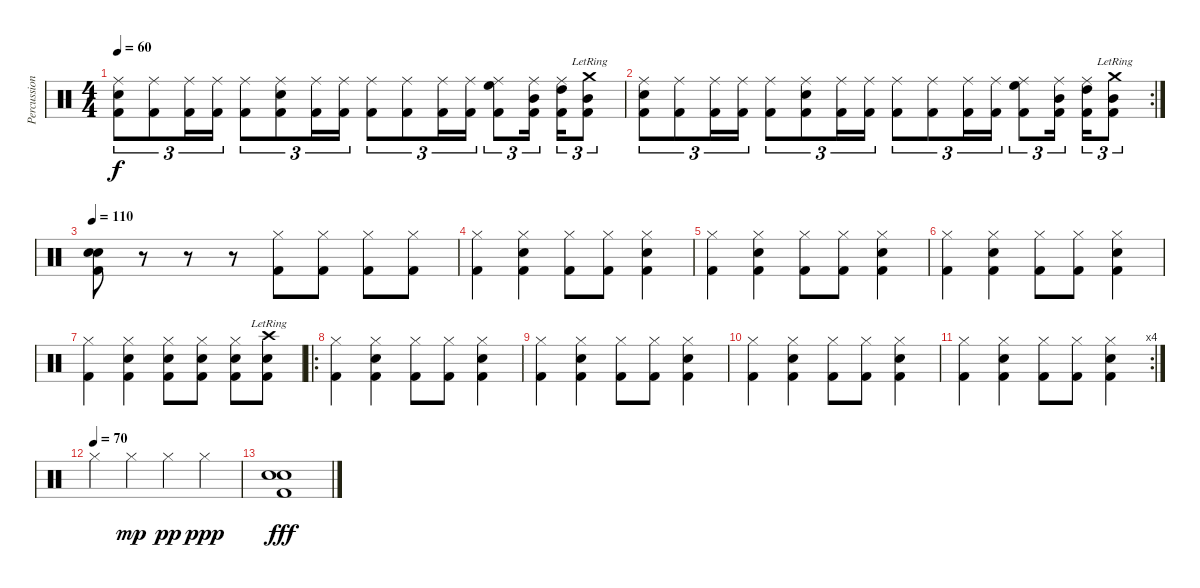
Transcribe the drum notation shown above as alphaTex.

\track ("Percussion" "Percussion") {instrument percussion}
\staff {score}
\articulation defaults
\ts (4 4)
\tempo 60
\clef neutral
\ks c
("Ride (middle)" "Snare (hit) 2" "Kick (hit) 2").8{tu (3 2) dy f} ("Ride (middle)" "Kick (hit) 2").8{tu (3 2)} ("Ride (middle)" "Kick (hit) 2").16{tu (3 2)} ("Ride (middle)" "Kick (hit) 2").16{tu (3 2)} ("Ride (middle)" "Kick (hit) 2").8{tu (3 2)} ("Ride (middle)" "Electric Snare (hit)" "Kick (hit) 2").8{tu (3 2)} ("Ride (middle)" "Kick (hit) 2").16{tu (3 2)} ("Ride (middle)" "Kick (hit) 2").16{tu (3 2)} ("Ride (middle)" "Kick (hit) 2").8{tu (3 2)} ("Ride (middle)" "Kick (hit) 2").8{tu (3 2)} ("Ride (middle)" "Kick (hit) 2").16{tu (3 2)} ("Ride (middle)" "Kick (hit) 2").16{tu (3 2)} ("Ride (middle)" "High Floor Tom (hit)" "Kick (hit) 2").8{tu (3 2)} ("Ride (middle)" "Mid Tom (hit)" "Kick (hit) 2").16{tu (3 2)} ("Ride (middle)" "High Tom (hit)" "Kick (hit) 2").16{tu (3 2)} ("Crash medium (hit)"{lr} "Mid Tom (hit)" "Kick (hit) 2").8{tu (3 2)} |
\rc 2
("Ride (middle)" "Snare (hit) 2" "Kick (hit) 2").8{tu (3 2)} ("Ride (middle)" "Kick (hit) 2").8{tu (3 2)} ("Ride (middle)" "Kick (hit) 2").16{tu (3 2)} ("Ride (middle)" "Kick (hit) 2").16{tu (3 2)} ("Ride (middle)" "Kick (hit) 2").8{tu (3 2)} ("Ride (middle)" "Electric Snare (hit)" "Kick (hit) 2").8{tu (3 2)} ("Ride (middle)" "Kick (hit) 2").16{tu (3 2)} ("Ride (middle)" "Kick (hit) 2").16{tu (3 2)} ("Ride (middle)" "Kick (hit) 2").8{tu (3 2)} ("Ride (middle)" "Kick (hit) 2").8{tu (3 2)} ("Ride (middle)" "Kick (hit) 2").16{tu (3 2)} ("Ride (middle)" "Kick (hit) 2").16{tu (3 2)} ("Ride (middle)" "High Floor Tom (hit)" "Kick (hit) 2").8{tu (3 2)} ("Ride (middle)" "Mid Tom (hit)" "Kick (hit) 2").16{tu (3 2)} ("Ride (middle)" "High Tom (hit)" "Kick (hit) 2").16{tu (3 2)} ("Crash medium (hit)"{lr} "Mid Tom (hit)" "Kick (hit) 2").8{tu (3 2)} |
\tempo 110
("Snare (hit) 2" "Electric Snare (hit)" "Kick (hit) 2").8 r.8 r.8 r.8 ("Hi-Hat (closed)" "Kick (hit) 2").8 ("Hi-Hat (closed)" "Kick (hit) 2").8 ("Hi-Hat (closed)" "Kick (hit) 2").8 ("Hi-Hat (closed)" "Kick (hit) 2").8 |
("Hi-Hat (closed)" "Kick (hit) 2").4 ("Hi-Hat (closed)" "Snare (hit) 2" "Kick (hit) 2").4 ("Hi-Hat (closed)" "Kick (hit) 2").8 ("Hi-Hat (closed)" "Kick (hit) 2").8 ("Hi-Hat (closed)" "Snare (hit) 2" "Kick (hit) 2").4 |
("Hi-Hat (closed)" "Kick (hit) 2").4 ("Hi-Hat (closed)" "Snare (hit) 2" "Kick (hit) 2").4 ("Hi-Hat (closed)" "Kick (hit) 2").8 ("Hi-Hat (closed)" "Kick (hit) 2").8 ("Hi-Hat (closed)" "Snare (hit) 2" "Kick (hit) 2").4 |
("Hi-Hat (closed)" "Kick (hit) 2").4 ("Hi-Hat (closed)" "Snare (hit) 2" "Kick (hit) 2").4 ("Hi-Hat (closed)" "Kick (hit) 2").8 ("Hi-Hat (closed)" "Kick (hit) 2").8 ("Hi-Hat (closed)" "Snare (hit) 2" "Kick (hit) 2").4 |
("Hi-Hat (closed)" "Kick (hit) 2").4 ("Hi-Hat (closed)" "Snare (hit) 2" "Kick (hit) 2").4 ("Hi-Hat (closed)" "Snare (hit) 2" "Kick (hit) 2").8 ("Hi-Hat (closed)" "Snare (hit) 2" "Kick (hit) 2").8 ("Hi-Hat (closed)" "Snare (hit) 2" "Kick (hit) 2").8 ("Crash high (hit)"{lr} "Electric Snare (hit)" "Kick (hit) 2").8 |
\ro
("Hi-Hat (closed)" "Kick (hit) 2").4 ("Hi-Hat (closed)" "Snare (hit) 2" "Kick (hit) 2").4 ("Hi-Hat (closed)" "Kick (hit) 2").8 ("Hi-Hat (closed)" "Kick (hit) 2").8 ("Hi-Hat (closed)" "Snare (hit) 2" "Kick (hit) 2").4 |
("Hi-Hat (closed)" "Kick (hit) 2").4 ("Hi-Hat (closed)" "Snare (hit) 2" "Kick (hit) 2").4 ("Hi-Hat (closed)" "Kick (hit) 2").8 ("Hi-Hat (closed)" "Kick (hit) 2").8 ("Hi-Hat (closed)" "Snare (hit) 2" "Kick (hit) 2").4 |
("Hi-Hat (closed)" "Kick (hit) 2").4 ("Hi-Hat (closed)" "Snare (hit) 2" "Kick (hit) 2").4 ("Hi-Hat (closed)" "Kick (hit) 2").8 ("Hi-Hat (closed)" "Kick (hit) 2").8 ("Hi-Hat (closed)" "Snare (hit) 2" "Kick (hit) 2").4 |
\rc 4
("Hi-Hat (closed)" "Kick (hit) 2").4 ("Hi-Hat (closed)" "Snare (hit) 2" "Kick (hit) 2").4 ("Hi-Hat (closed)" "Kick (hit) 2").8 ("Hi-Hat (closed)" "Kick (hit) 2").8 ("Hi-Hat (closed)" "Snare (hit) 2" "Kick (hit) 2").4 |
\tempo (70)
"Hi-Hat (closed)".4 "Hi-Hat (closed)".4{dy mp} "Hi-Hat (closed)".4{dy pp} "Hi-Hat (closed)".4{dy ppp} |
("Electric Snare (hit)" "Snare (hit) 2" "Kick (hit) 2").1{dy fff}
